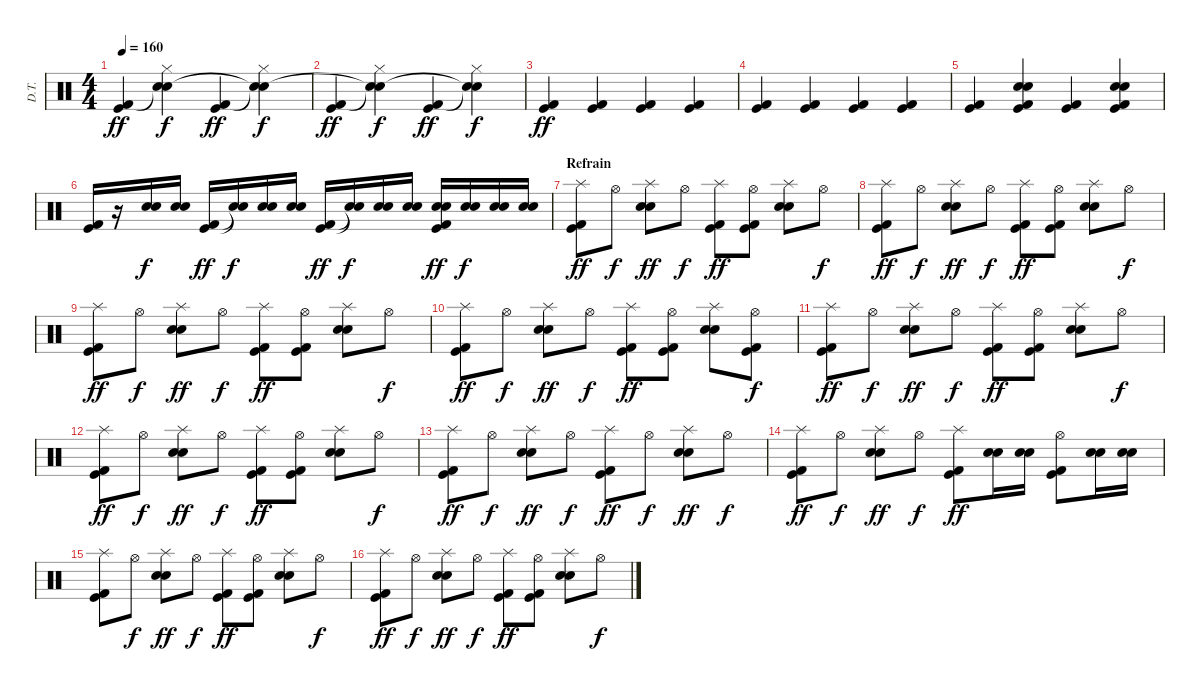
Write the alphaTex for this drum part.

\track ("D.T." "D.T.") {instrument percussion}
\staff {score}
\articulation defaults
\ts (4 4)
\tempo 160
\clef neutral
\ks c
("Kick (hit)" "Kick (hit) 2").4{dy ff} ("Hi-Hat (closed)" "Snare (hit)"{t} "Snare (hit)"{t}).4{dy f} ("Kick (hit)" "Kick (hit) 2").4{dy ff} ("Hi-Hat (closed)" "Snare (hit)"{t} "Snare (hit)"{t}).4{dy f} |
("Kick (hit)" "Kick (hit) 2").4{dy ff} ("Hi-Hat (closed)" "Snare (hit)"{t} "Snare (hit)"{t}).4{dy f} ("Kick (hit)" "Kick (hit) 2").4{dy ff} ("Hi-Hat (closed)" "Snare (hit)"{t} "Snare (hit)"{t}).4{dy f} |
("Kick (hit)" "Kick (hit) 2").4{dy ff} ("Kick (hit)" "Kick (hit) 2").4 ("Kick (hit)" "Kick (hit) 2").4 ("Kick (hit)" "Kick (hit) 2").4 |
("Kick (hit)" "Kick (hit) 2").4 ("Kick (hit)" "Kick (hit) 2").4 ("Kick (hit)" "Kick (hit) 2").4 ("Kick (hit)" "Kick (hit) 2").4 |
("Kick (hit)" "Kick (hit) 2").4 ("Snare (hit) 2" "Electric Snare (hit)" "Kick (hit)" "Kick (hit) 2").4 ("Kick (hit)" "Kick (hit) 2").4 ("Snare (hit) 2" "Electric Snare (hit)" "Kick (hit)" "Kick (hit) 2").4 |
("Kick (hit)" "Kick (hit) 2").16 r.16 ("Snare (hit) 2" "Electric Snare (hit)").16{dy f} ("Snare (hit) 2" "Electric Snare (hit)").16 ("Kick (hit)" "Kick (hit) 2").16{dy ff} ("Snare (hit)"{t} "Snare (hit)"{t}).16{dy f} ("Snare (hit) 2" "Electric Snare (hit)").16 ("Snare (hit) 2" "Electric Snare (hit)").16 ("Kick (hit)" "Kick (hit) 2").16{dy ff} ("Snare (hit)"{t} "Snare (hit)"{t}).16{dy f} ("Snare (hit) 2" "Electric Snare (hit)").16 ("Snare (hit) 2" "Electric Snare (hit)").16 ("Snare (hit) 2" "Electric Snare (hit)" "Kick (hit)" "Kick (hit) 2").16{dy ff} ("Snare (hit) 2" "Electric Snare (hit)").16{dy f} ("Snare (hit) 2" "Electric Snare (hit)").16 ("Snare (hit) 2" "Electric Snare (hit)").16 |
\section ("" "Refrain")
("Splash (hit)" "Kick (hit)" "Kick (hit) 2").8{dy ff} "Hi-Hat (open)".8{dy f} ("Splash (hit)" "Snare (hit) 2" "Electric Snare (hit)").8{dy ff} "Hi-Hat (open)".8{dy f} ("Splash (hit)" "Kick (hit)" "Kick (hit) 2").8{dy ff} ("Hi-Hat (open)" "Kick (hit)" "Kick (hit) 2").8 ("Splash (hit)" "Snare (hit) 2" "Electric Snare (hit)").8 "Hi-Hat (open)".8{dy f} |
("Splash (hit)" "Kick (hit)" "Kick (hit) 2").8{dy ff} "Hi-Hat (open)".8{dy f} ("Splash (hit)" "Snare (hit) 2" "Electric Snare (hit)").8{dy ff} "Hi-Hat (open)".8{dy f} ("Splash (hit)" "Kick (hit)" "Kick (hit) 2").8{dy ff} ("Hi-Hat (open)" "Kick (hit)" "Kick (hit) 2").8 ("Splash (hit)" "Snare (hit) 2" "Electric Snare (hit)").8 "Hi-Hat (open)".8{dy f} |
("Splash (hit)" "Kick (hit)" "Kick (hit) 2").8{dy ff} "Hi-Hat (open)".8{dy f} ("Splash (hit)" "Snare (hit) 2" "Electric Snare (hit)").8{dy ff} "Hi-Hat (open)".8{dy f} ("Splash (hit)" "Kick (hit)" "Kick (hit) 2").8{dy ff} ("Hi-Hat (open)" "Kick (hit)" "Kick (hit) 2").8 ("Splash (hit)" "Snare (hit) 2" "Electric Snare (hit)").8 "Hi-Hat (open)".8{dy f} |
("Splash (hit)" "Kick (hit)" "Kick (hit) 2").8{dy ff} "Hi-Hat (open)".8{dy f} ("Splash (hit)" "Snare (hit) 2" "Electric Snare (hit)").8{dy ff} "Hi-Hat (open)".8{dy f} ("Splash (hit)" "Kick (hit)" "Kick (hit) 2").8{dy ff} ("Hi-Hat (open)" "Kick (hit)" "Kick (hit) 2").8 ("Splash (hit)" "Snare (hit) 2" "Electric Snare (hit)").8 ("Hi-Hat (open)" "Kick (hit)" "Kick (hit) 2").8{dy f} |
("Splash (hit)" "Kick (hit)" "Kick (hit) 2").8{dy ff} "Hi-Hat (open)".8{dy f} ("Splash (hit)" "Snare (hit) 2" "Electric Snare (hit)").8{dy ff} "Hi-Hat (open)".8{dy f} ("Splash (hit)" "Kick (hit)" "Kick (hit) 2").8{dy ff} ("Hi-Hat (open)" "Kick (hit)" "Kick (hit) 2").8 ("Splash (hit)" "Snare (hit) 2" "Electric Snare (hit)").8 "Hi-Hat (open)".8{dy f} |
("Splash (hit)" "Kick (hit)" "Kick (hit) 2").8{dy ff} "Hi-Hat (open)".8{dy f} ("Splash (hit)" "Snare (hit) 2" "Electric Snare (hit)").8{dy ff} "Hi-Hat (open)".8{dy f} ("Splash (hit)" "Kick (hit)" "Kick (hit) 2").8{dy ff} ("Hi-Hat (open)" "Kick (hit)" "Kick (hit) 2").8 ("Splash (hit)" "Snare (hit) 2" "Electric Snare (hit)").8 "Hi-Hat (open)".8{dy f} |
("Splash (hit)" "Kick (hit)" "Kick (hit) 2").8{dy ff} "Hi-Hat (open)".8{dy f} ("Splash (hit)" "Snare (hit) 2" "Electric Snare (hit)").8{dy ff} "Hi-Hat (open)".8{dy f} ("Splash (hit)" "Kick (hit)" "Kick (hit) 2").8{dy ff} "Hi-Hat (open)".8{dy f} ("Splash (hit)" "Snare (hit) 2" "Electric Snare (hit)").8{dy ff} "Hi-Hat (open)".8{dy f} |
("Splash (hit)" "Kick (hit)" "Kick (hit) 2").8{dy ff} "Hi-Hat (open)".8{dy f} ("Splash (hit)" "Snare (hit) 2" "Electric Snare (hit)").8{dy ff} "Hi-Hat (open)".8{dy f} ("Splash (hit)" "Kick (hit)" "Kick (hit) 2").8{dy ff} ("Snare (hit) 2" "Electric Snare (hit)").16 ("Snare (hit) 2" "Electric Snare (hit)").16 ("Hi-Hat (open)" "Kick (hit)" "Kick (hit) 2").8 ("Snare (hit) 2" "Electric Snare (hit)").16 ("Snare (hit) 2" "Electric Snare (hit)").16 |
("Splash (hit)" "Kick (hit)" "Kick (hit) 2").8 "Hi-Hat (open)".8{dy f} ("Splash (hit)" "Snare (hit) 2" "Electric Snare (hit)").8{dy ff} "Hi-Hat (open)".8{dy f} ("Splash (hit)" "Kick (hit)" "Kick (hit) 2").8{dy ff} ("Hi-Hat (open)" "Kick (hit)" "Kick (hit) 2").8 ("Splash (hit)" "Snare (hit) 2" "Electric Snare (hit)").8 "Hi-Hat (open)".8{dy f} |
("Splash (hit)" "Kick (hit)" "Kick (hit) 2").8{dy ff} "Hi-Hat (open)".8{dy f} ("Splash (hit)" "Snare (hit) 2" "Electric Snare (hit)").8{dy ff} "Hi-Hat (open)".8{dy f} ("Splash (hit)" "Kick (hit)" "Kick (hit) 2").8{dy ff} ("Hi-Hat (open)" "Kick (hit)" "Kick (hit) 2").8 ("Splash (hit)" "Snare (hit) 2" "Electric Snare (hit)").8 "Hi-Hat (open)".8{dy f}
